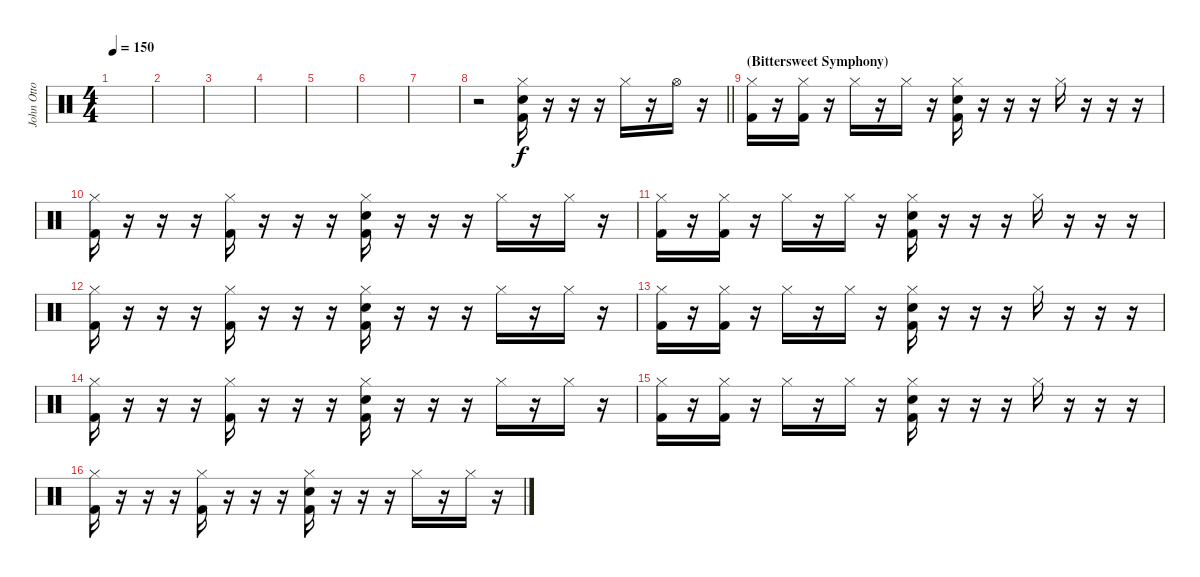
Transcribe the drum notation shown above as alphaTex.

\track ("John Otto" "John Otto") {instrument percussion}
\staff {score}
\articulation defaults
\ts (4 4)
\tempo 150
\clef neutral
\ks c
|
|
|
|
|
|
|
\barLineRight lightlight
r.2 ("Hi-Hat (closed)" "Snare (hit) 2" "Kick (hit) 2").16 r.16 r.16 r.16 "Hi-Hat (closed)".16 r.16 "Hi-Hat (open)".16 r.16 |
\section ("" "(Bittersweet Symphony)")
("Hi-Hat (closed)" "Kick (hit) 2").16 r.16 ("Hi-Hat (closed)" "Kick (hit) 2").16 r.16 "Hi-Hat (closed)".16 r.16 "Hi-Hat (closed)".16 r.16 ("Hi-Hat (closed)" "Snare (hit) 2" "Kick (hit) 2").16 r.16 r.16 r.16 "Hi-Hat (closed)".16 r.16 r.16 r.16 |
("Hi-Hat (closed)" "Kick (hit) 2").16 r.16 r.16 r.16 ("Hi-Hat (closed)" "Kick (hit) 2").16 r.16 r.16 r.16 ("Hi-Hat (closed)" "Snare (hit) 2" "Kick (hit) 2").16 r.16 r.16 r.16 "Hi-Hat (closed)".16 r.16 "Hi-Hat (closed)".16 r.16 |
("Hi-Hat (closed)" "Kick (hit) 2").16 r.16 ("Hi-Hat (closed)" "Kick (hit) 2").16 r.16 "Hi-Hat (closed)".16 r.16 "Hi-Hat (closed)".16 r.16 ("Hi-Hat (closed)" "Snare (hit) 2" "Kick (hit) 2").16 r.16 r.16 r.16 "Hi-Hat (closed)".16 r.16 r.16 r.16 |
("Hi-Hat (closed)" "Kick (hit) 2").16 r.16 r.16 r.16 ("Hi-Hat (closed)" "Kick (hit) 2").16 r.16 r.16 r.16 ("Hi-Hat (closed)" "Snare (hit) 2" "Kick (hit) 2").16 r.16 r.16 r.16 "Hi-Hat (closed)".16 r.16 "Hi-Hat (closed)".16 r.16 |
("Hi-Hat (closed)" "Kick (hit) 2").16 r.16 ("Hi-Hat (closed)" "Kick (hit) 2").16 r.16 "Hi-Hat (closed)".16 r.16 "Hi-Hat (closed)".16 r.16 ("Hi-Hat (closed)" "Snare (hit) 2" "Kick (hit) 2").16 r.16 r.16 r.16 "Hi-Hat (closed)".16 r.16 r.16 r.16 |
("Hi-Hat (closed)" "Kick (hit) 2").16 r.16 r.16 r.16 ("Hi-Hat (closed)" "Kick (hit) 2").16 r.16 r.16 r.16 ("Hi-Hat (closed)" "Snare (hit) 2" "Kick (hit) 2").16 r.16 r.16 r.16 "Hi-Hat (closed)".16 r.16 "Hi-Hat (closed)".16 r.16 |
("Hi-Hat (closed)" "Kick (hit) 2").16 r.16 ("Hi-Hat (closed)" "Kick (hit) 2").16 r.16 "Hi-Hat (closed)".16 r.16 "Hi-Hat (closed)".16 r.16 ("Hi-Hat (closed)" "Snare (hit) 2" "Kick (hit) 2").16 r.16 r.16 r.16 "Hi-Hat (closed)".16 r.16 r.16 r.16 |
("Hi-Hat (closed)" "Kick (hit) 2").16 r.16 r.16 r.16 ("Hi-Hat (closed)" "Kick (hit) 2").16 r.16 r.16 r.16 ("Hi-Hat (closed)" "Snare (hit) 2" "Kick (hit) 2").16 r.16 r.16 r.16 "Hi-Hat (closed)".16 r.16 "Hi-Hat (closed)".16 r.16
